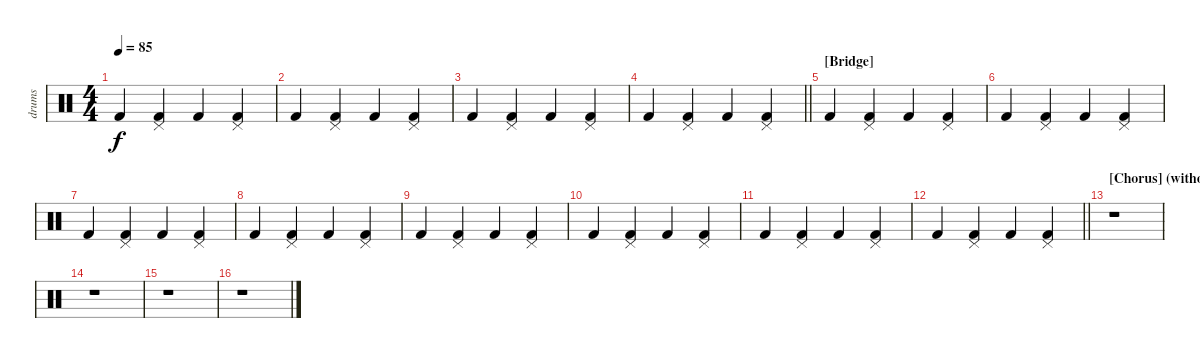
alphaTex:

\track ("drums" "drums") {instrument percussion}
\staff {score}
\articulation defaults
\ts (4 4)
\tempo 85
\clef neutral
\ks c "Kick (hit) 2".4{dy f}
("Pedal Hi-Hat (hit)" "Kick (hit) 2").4 "Kick (hit) 2".4 ("Pedal Hi-Hat (hit)" "Kick (hit) 2").4 |
"Kick (hit) 2".4 ("Pedal Hi-Hat (hit)" "Kick (hit) 2").4 "Kick (hit) 2".4 ("Pedal Hi-Hat (hit)" "Kick (hit) 2").4 |
"Kick (hit) 2".4 ("Pedal Hi-Hat (hit)" "Kick (hit) 2").4 "Kick (hit) 2".4 ("Pedal Hi-Hat (hit)" "Kick (hit) 2").4 |
\barLineRight lightlight "Kick (hit) 2".4
("Pedal Hi-Hat (hit)" "Kick (hit) 2").4 "Kick (hit) 2".4 ("Pedal Hi-Hat (hit)" "Kick (hit) 2").4 |
\section ("" "[Bridge]")
"Kick (hit) 2".4 ("Pedal Hi-Hat (hit)" "Kick (hit) 2").4 "Kick (hit) 2".4 ("Pedal Hi-Hat (hit)" "Kick (hit) 2").4 |
"Kick (hit) 2".4 ("Pedal Hi-Hat (hit)" "Kick (hit) 2").4 "Kick (hit) 2".4 ("Pedal Hi-Hat (hit)" "Kick (hit) 2").4 |
"Kick (hit) 2".4 ("Pedal Hi-Hat (hit)" "Kick (hit) 2").4 "Kick (hit) 2".4 ("Pedal Hi-Hat (hit)" "Kick (hit) 2").4 |
"Kick (hit) 2".4 ("Pedal Hi-Hat (hit)" "Kick (hit) 2").4 "Kick (hit) 2".4 ("Pedal Hi-Hat (hit)" "Kick (hit) 2").4 |
"Kick (hit) 2".4 ("Pedal Hi-Hat (hit)" "Kick (hit) 2").4 "Kick (hit) 2".4 ("Pedal Hi-Hat (hit)" "Kick (hit) 2").4 |
"Kick (hit) 2".4 ("Pedal Hi-Hat (hit)" "Kick (hit) 2").4 "Kick (hit) 2".4 ("Pedal Hi-Hat (hit)" "Kick (hit) 2").4 |
"Kick (hit) 2".4 ("Pedal Hi-Hat (hit)" "Kick (hit) 2").4 "Kick (hit) 2".4 ("Pedal Hi-Hat (hit)" "Kick (hit) 2").4 |
\barLineRight lightlight "Kick (hit) 2".4
("Pedal Hi-Hat (hit)" "Kick (hit) 2").4 "Kick (hit) 2".4 ("Pedal Hi-Hat (hit)" "Kick (hit) 2").4 |
\section ("" "[Chorus] (without drums)")
r.1 |
r.1 |
r.1 |
r.1
